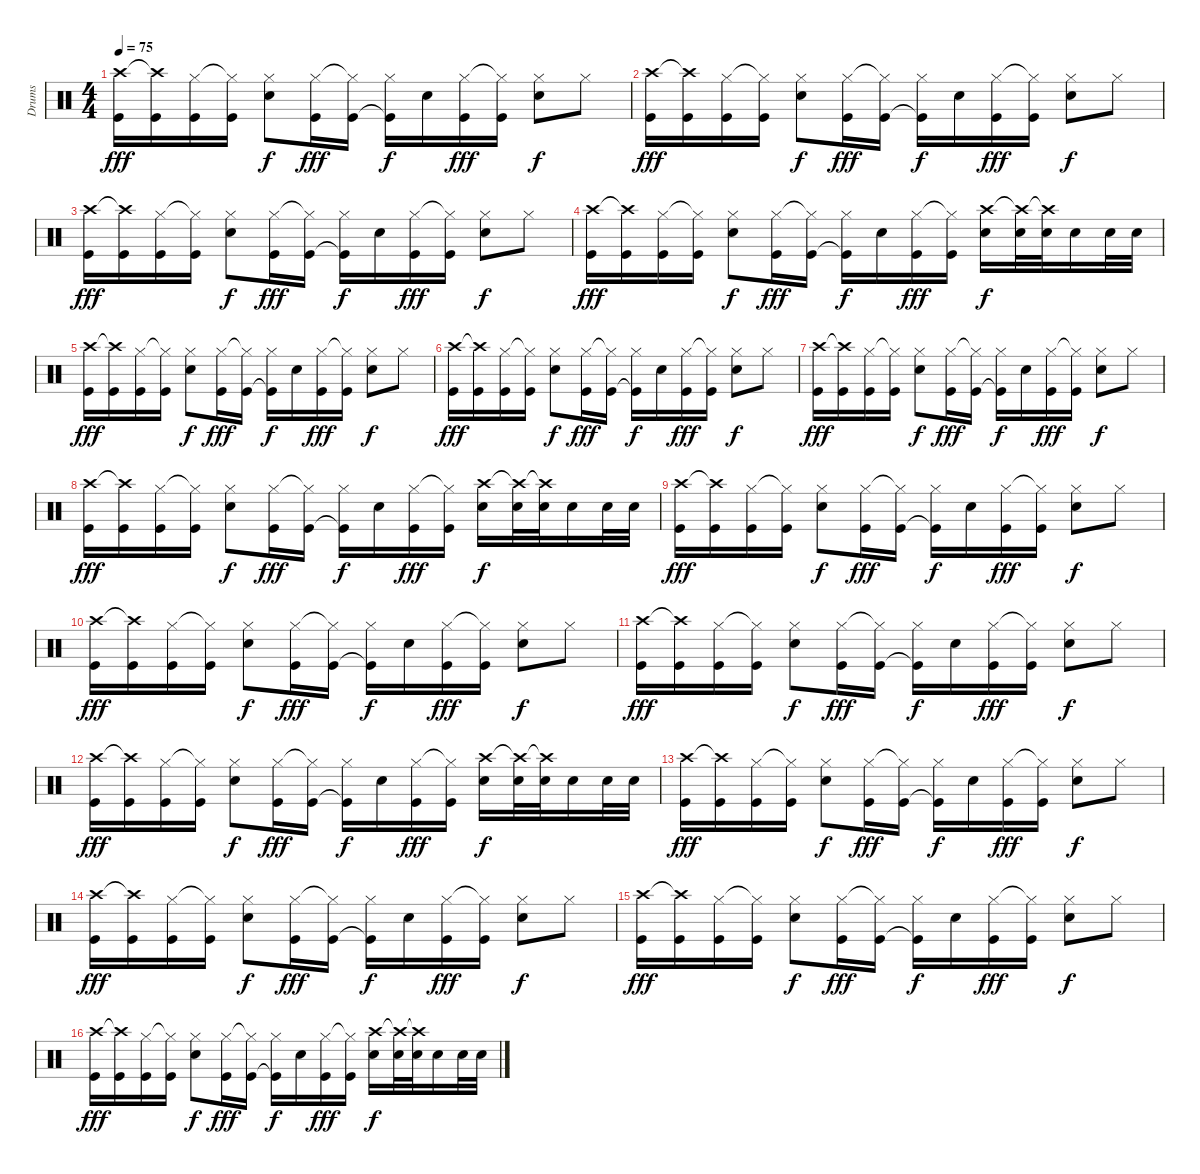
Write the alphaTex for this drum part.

\track ("Drums" "Drums") {instrument percussion}
\staff {score}
\articulation defaults
\ts (4 4)
\tempo 75
\clef neutral
\ks c
("Crash high (hit)" "Kick (hit)").16{dy fff} ("Crash high (hit)"{t} "Kick (hit)").16 ("Hi-Hat (closed)" "Kick (hit)").16 ("Hi-Hat (closed)"{t} "Kick (hit)").16 ("Hi-Hat (closed)" "Snare (hit) 2").8{dy f} ("Hi-Hat (closed)" "Kick (hit)").16{dy fff} ("Hi-Hat (closed)"{t} "Kick (hit)").16 ("Hi-Hat (closed)" "Kick (hit)"{t}).16{dy f} "Snare (hit) 2".16 ("Hi-Hat (closed)" "Kick (hit)").16{dy fff} ("Hi-Hat (closed)"{t} "Kick (hit)").16 ("Hi-Hat (closed)" "Snare (hit) 2").8{dy f} "Hi-Hat (closed)".8 |
("Crash high (hit)" "Kick (hit)").16{dy fff} ("Crash high (hit)"{t} "Kick (hit)").16 ("Hi-Hat (closed)" "Kick (hit)").16 ("Hi-Hat (closed)"{t} "Kick (hit)").16 ("Hi-Hat (closed)" "Snare (hit) 2").8{dy f} ("Hi-Hat (closed)" "Kick (hit)").16{dy fff} ("Hi-Hat (closed)"{t} "Kick (hit)").16 ("Hi-Hat (closed)" "Kick (hit)"{t}).16{dy f} "Snare (hit) 2".16 ("Hi-Hat (closed)" "Kick (hit)").16{dy fff} ("Hi-Hat (closed)"{t} "Kick (hit)").16 ("Hi-Hat (closed)" "Snare (hit) 2").8{dy f} "Hi-Hat (closed)".8 |
("Crash high (hit)" "Kick (hit)").16{dy fff} ("Crash high (hit)"{t} "Kick (hit)").16 ("Hi-Hat (closed)" "Kick (hit)").16 ("Hi-Hat (closed)"{t} "Kick (hit)").16 ("Hi-Hat (closed)" "Snare (hit) 2").8{dy f} ("Hi-Hat (closed)" "Kick (hit)").16{dy fff} ("Hi-Hat (closed)"{t} "Kick (hit)").16 ("Hi-Hat (closed)" "Kick (hit)"{t}).16{dy f} "Snare (hit) 2".16 ("Hi-Hat (closed)" "Kick (hit)").16{dy fff} ("Hi-Hat (closed)"{t} "Kick (hit)").16 ("Hi-Hat (closed)" "Snare (hit) 2").8{dy f} "Hi-Hat (closed)".8 |
("Crash high (hit)" "Kick (hit)").16{dy fff} ("Crash high (hit)"{t} "Kick (hit)").16 ("Hi-Hat (closed)" "Kick (hit)").16 ("Hi-Hat (closed)"{t} "Kick (hit)").16 ("Hi-Hat (closed)" "Snare (hit) 2").8{dy f} ("Hi-Hat (closed)" "Kick (hit)").16{dy fff} ("Hi-Hat (closed)"{t} "Kick (hit)").16 ("Hi-Hat (closed)" "Kick (hit)"{t}).16{dy f} "Snare (hit) 2".16 ("Hi-Hat (closed)" "Kick (hit)").16{dy fff} ("Hi-Hat (closed)"{t} "Kick (hit)").16 ("Crash high (hit)" "Snare (hit) 2").16{dy f} ("Crash high (hit)"{t} "Snare (hit) 2").32 ("Crash high (hit)"{t} "Snare (hit) 2").32 "Snare (hit) 2".16 "Snare (hit) 2".32 "Snare (hit) 2".32 |
("Crash high (hit)" "Kick (hit)").16{dy fff} ("Crash high (hit)"{t} "Kick (hit)").16 ("Hi-Hat (closed)" "Kick (hit)").16 ("Hi-Hat (closed)"{t} "Kick (hit)").16 ("Hi-Hat (closed)" "Snare (hit) 2").8{dy f} ("Hi-Hat (closed)" "Kick (hit)").16{dy fff} ("Hi-Hat (closed)"{t} "Kick (hit)").16 ("Hi-Hat (closed)" "Kick (hit)"{t}).16{dy f} "Snare (hit) 2".16 ("Hi-Hat (closed)" "Kick (hit)").16{dy fff} ("Hi-Hat (closed)"{t} "Kick (hit)").16 ("Hi-Hat (closed)" "Snare (hit) 2").8{dy f} "Hi-Hat (closed)".8 |
("Crash high (hit)" "Kick (hit)").16{dy fff} ("Crash high (hit)"{t} "Kick (hit)").16 ("Hi-Hat (closed)" "Kick (hit)").16 ("Hi-Hat (closed)"{t} "Kick (hit)").16 ("Hi-Hat (closed)" "Snare (hit) 2").8{dy f} ("Hi-Hat (closed)" "Kick (hit)").16{dy fff} ("Hi-Hat (closed)"{t} "Kick (hit)").16 ("Hi-Hat (closed)" "Kick (hit)"{t}).16{dy f} "Snare (hit) 2".16 ("Hi-Hat (closed)" "Kick (hit)").16{dy fff} ("Hi-Hat (closed)"{t} "Kick (hit)").16 ("Hi-Hat (closed)" "Snare (hit) 2").8{dy f} "Hi-Hat (closed)".8 |
("Crash high (hit)" "Kick (hit)").16{dy fff} ("Crash high (hit)"{t} "Kick (hit)").16 ("Hi-Hat (closed)" "Kick (hit)").16 ("Hi-Hat (closed)"{t} "Kick (hit)").16 ("Hi-Hat (closed)" "Snare (hit) 2").8{dy f} ("Hi-Hat (closed)" "Kick (hit)").16{dy fff} ("Hi-Hat (closed)"{t} "Kick (hit)").16 ("Hi-Hat (closed)" "Kick (hit)"{t}).16{dy f} "Snare (hit) 2".16 ("Hi-Hat (closed)" "Kick (hit)").16{dy fff} ("Hi-Hat (closed)"{t} "Kick (hit)").16 ("Hi-Hat (closed)" "Snare (hit) 2").8{dy f} "Hi-Hat (closed)".8 |
("Crash high (hit)" "Kick (hit)").16{dy fff} ("Crash high (hit)"{t} "Kick (hit)").16 ("Hi-Hat (closed)" "Kick (hit)").16 ("Hi-Hat (closed)"{t} "Kick (hit)").16 ("Hi-Hat (closed)" "Snare (hit) 2").8{dy f} ("Hi-Hat (closed)" "Kick (hit)").16{dy fff} ("Hi-Hat (closed)"{t} "Kick (hit)").16 ("Hi-Hat (closed)" "Kick (hit)"{t}).16{dy f} "Snare (hit) 2".16 ("Hi-Hat (closed)" "Kick (hit)").16{dy fff} ("Hi-Hat (closed)"{t} "Kick (hit)").16 ("Crash high (hit)" "Snare (hit) 2").16{dy f} ("Crash high (hit)"{t} "Snare (hit) 2").32 ("Crash high (hit)"{t} "Snare (hit) 2").32 "Snare (hit) 2".16 "Snare (hit) 2".32 "Snare (hit) 2".32 |
("Crash high (hit)" "Kick (hit)").16{dy fff} ("Crash high (hit)"{t} "Kick (hit)").16 ("Hi-Hat (closed)" "Kick (hit)").16 ("Hi-Hat (closed)"{t} "Kick (hit)").16 ("Hi-Hat (closed)" "Snare (hit) 2").8{dy f} ("Hi-Hat (closed)" "Kick (hit)").16{dy fff} ("Hi-Hat (closed)"{t} "Kick (hit)").16 ("Hi-Hat (closed)" "Kick (hit)"{t}).16{dy f} "Snare (hit) 2".16 ("Hi-Hat (closed)" "Kick (hit)").16{dy fff} ("Hi-Hat (closed)"{t} "Kick (hit)").16 ("Hi-Hat (closed)" "Snare (hit) 2").8{dy f} "Hi-Hat (closed)".8 |
("Crash high (hit)" "Kick (hit)").16{dy fff} ("Crash high (hit)"{t} "Kick (hit)").16 ("Hi-Hat (closed)" "Kick (hit)").16 ("Hi-Hat (closed)"{t} "Kick (hit)").16 ("Hi-Hat (closed)" "Snare (hit) 2").8{dy f} ("Hi-Hat (closed)" "Kick (hit)").16{dy fff} ("Hi-Hat (closed)"{t} "Kick (hit)").16 ("Hi-Hat (closed)" "Kick (hit)"{t}).16{dy f} "Snare (hit) 2".16 ("Hi-Hat (closed)" "Kick (hit)").16{dy fff} ("Hi-Hat (closed)"{t} "Kick (hit)").16 ("Hi-Hat (closed)" "Snare (hit) 2").8{dy f} "Hi-Hat (closed)".8 |
("Crash high (hit)" "Kick (hit)").16{dy fff} ("Crash high (hit)"{t} "Kick (hit)").16 ("Hi-Hat (closed)" "Kick (hit)").16 ("Hi-Hat (closed)"{t} "Kick (hit)").16 ("Hi-Hat (closed)" "Snare (hit) 2").8{dy f} ("Hi-Hat (closed)" "Kick (hit)").16{dy fff} ("Hi-Hat (closed)"{t} "Kick (hit)").16 ("Hi-Hat (closed)" "Kick (hit)"{t}).16{dy f} "Snare (hit) 2".16 ("Hi-Hat (closed)" "Kick (hit)").16{dy fff} ("Hi-Hat (closed)"{t} "Kick (hit)").16 ("Hi-Hat (closed)" "Snare (hit) 2").8{dy f} "Hi-Hat (closed)".8 |
("Crash high (hit)" "Kick (hit)").16{dy fff} ("Crash high (hit)"{t} "Kick (hit)").16 ("Hi-Hat (closed)" "Kick (hit)").16 ("Hi-Hat (closed)"{t} "Kick (hit)").16 ("Hi-Hat (closed)" "Snare (hit) 2").8{dy f} ("Hi-Hat (closed)" "Kick (hit)").16{dy fff} ("Hi-Hat (closed)"{t} "Kick (hit)").16 ("Hi-Hat (closed)" "Kick (hit)"{t}).16{dy f} "Snare (hit) 2".16 ("Hi-Hat (closed)" "Kick (hit)").16{dy fff} ("Hi-Hat (closed)"{t} "Kick (hit)").16 ("Crash high (hit)" "Snare (hit) 2").16{dy f} ("Crash high (hit)"{t} "Snare (hit) 2").32 ("Crash high (hit)"{t} "Snare (hit) 2").32 "Snare (hit) 2".16 "Snare (hit) 2".32 "Snare (hit) 2".32 |
("Crash high (hit)" "Kick (hit)").16{dy fff} ("Crash high (hit)"{t} "Kick (hit)").16 ("Hi-Hat (closed)" "Kick (hit)").16 ("Hi-Hat (closed)"{t} "Kick (hit)").16 ("Hi-Hat (closed)" "Snare (hit) 2").8{dy f} ("Hi-Hat (closed)" "Kick (hit)").16{dy fff} ("Hi-Hat (closed)"{t} "Kick (hit)").16 ("Hi-Hat (closed)" "Kick (hit)"{t}).16{dy f} "Snare (hit) 2".16 ("Hi-Hat (closed)" "Kick (hit)").16{dy fff} ("Hi-Hat (closed)"{t} "Kick (hit)").16 ("Hi-Hat (closed)" "Snare (hit) 2").8{dy f} "Hi-Hat (closed)".8 |
("Crash high (hit)" "Kick (hit)").16{dy fff} ("Crash high (hit)"{t} "Kick (hit)").16 ("Hi-Hat (closed)" "Kick (hit)").16 ("Hi-Hat (closed)"{t} "Kick (hit)").16 ("Hi-Hat (closed)" "Snare (hit) 2").8{dy f} ("Hi-Hat (closed)" "Kick (hit)").16{dy fff} ("Hi-Hat (closed)"{t} "Kick (hit)").16 ("Hi-Hat (closed)" "Kick (hit)"{t}).16{dy f} "Snare (hit) 2".16 ("Hi-Hat (closed)" "Kick (hit)").16{dy fff} ("Hi-Hat (closed)"{t} "Kick (hit)").16 ("Hi-Hat (closed)" "Snare (hit) 2").8{dy f} "Hi-Hat (closed)".8 |
("Crash high (hit)" "Kick (hit)").16{dy fff} ("Crash high (hit)"{t} "Kick (hit)").16 ("Hi-Hat (closed)" "Kick (hit)").16 ("Hi-Hat (closed)"{t} "Kick (hit)").16 ("Hi-Hat (closed)" "Snare (hit) 2").8{dy f} ("Hi-Hat (closed)" "Kick (hit)").16{dy fff} ("Hi-Hat (closed)"{t} "Kick (hit)").16 ("Hi-Hat (closed)" "Kick (hit)"{t}).16{dy f} "Snare (hit) 2".16 ("Hi-Hat (closed)" "Kick (hit)").16{dy fff} ("Hi-Hat (closed)"{t} "Kick (hit)").16 ("Hi-Hat (closed)" "Snare (hit) 2").8{dy f} "Hi-Hat (closed)".8 |
("Crash high (hit)" "Kick (hit)").16{dy fff} ("Crash high (hit)"{t} "Kick (hit)").16 ("Hi-Hat (closed)" "Kick (hit)").16 ("Hi-Hat (closed)"{t} "Kick (hit)").16 ("Hi-Hat (closed)" "Snare (hit) 2").8{dy f} ("Hi-Hat (closed)" "Kick (hit)").16{dy fff} ("Hi-Hat (closed)"{t} "Kick (hit)").16 ("Hi-Hat (closed)" "Kick (hit)"{t}).16{dy f} "Snare (hit) 2".16 ("Hi-Hat (closed)" "Kick (hit)").16{dy fff} ("Hi-Hat (closed)"{t} "Kick (hit)").16 ("Crash high (hit)" "Snare (hit) 2").16{dy f} ("Crash high (hit)"{t} "Snare (hit) 2").32 ("Crash high (hit)"{t} "Snare (hit) 2").32 "Snare (hit) 2".16 "Snare (hit) 2".32 "Snare (hit) 2".32
